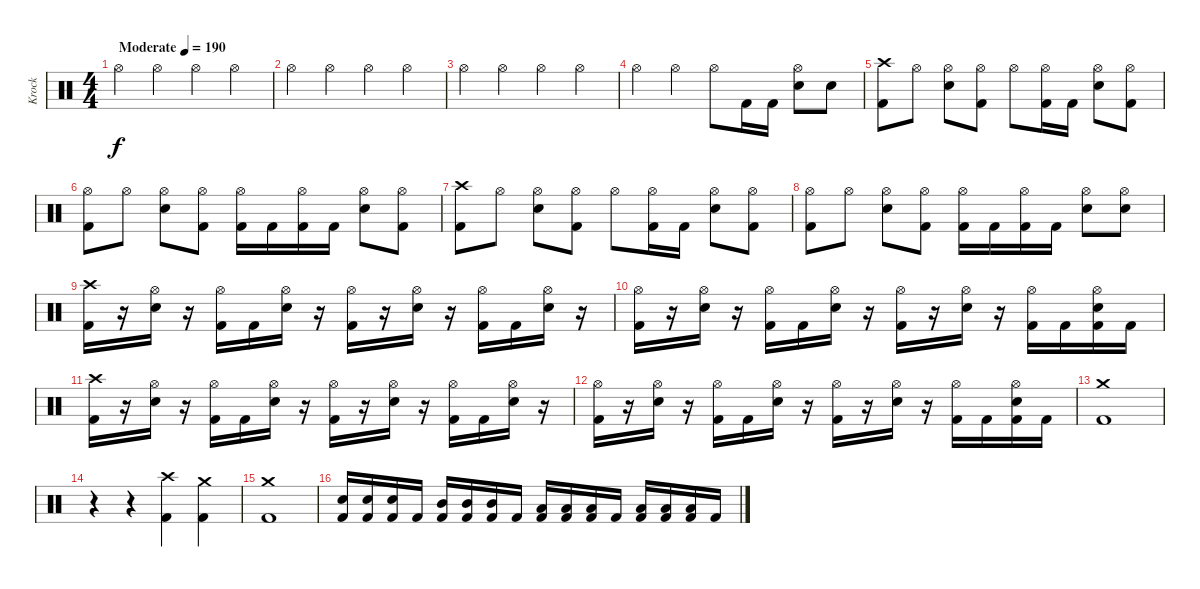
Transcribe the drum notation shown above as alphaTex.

\track ("Krock" "Krock") {instrument percussion}
\staff {score}
\articulation defaults
\ts (4 4)
\tempo (190 "Moderate")
\clef neutral
\ks c "Hi-Hat (open)".4{dy f} "Hi-Hat (open)".4 "Hi-Hat (open)".4 "Hi-Hat (open)".4
|
"Hi-Hat (open)".4 "Hi-Hat (open)".4 "Hi-Hat (open)".4 "Hi-Hat (open)".4 |
"Hi-Hat (open)".4 "Hi-Hat (open)".4 "Hi-Hat (open)".4 "Hi-Hat (open)".4 |
"Hi-Hat (open)".4 "Hi-Hat (open)".4 "Hi-Hat (open)".8 "Kick (hit) 2".16 "Kick (hit) 2".16 ("Hi-Hat (open)" "Electric Snare (hit)").8 "Electric Snare (hit)".8 |
("Crash high (hit)" "Kick (hit) 2").8 "Hi-Hat (open)".8 ("Hi-Hat (open)" "Electric Snare (hit)").8 ("Hi-Hat (open)" "Kick (hit) 2").8 "Hi-Hat (open)".8 ("Hi-Hat (open)" "Kick (hit) 2").16 "Kick (hit) 2".16 ("Hi-Hat (open)" "Electric Snare (hit)").8 ("Hi-Hat (open)" "Kick (hit) 2").8 |
("Hi-Hat (open)" "Kick (hit) 2").8 "Hi-Hat (open)".8 ("Hi-Hat (open)" "Electric Snare (hit)").8 ("Hi-Hat (open)" "Kick (hit) 2").8 ("Hi-Hat (open)" "Kick (hit) 2").16 "Kick (hit) 2".16 ("Hi-Hat (open)" "Kick (hit) 2").16 "Kick (hit) 2".16 ("Hi-Hat (open)" "Electric Snare (hit)").8 ("Hi-Hat (open)" "Kick (hit) 2").8 |
("Crash high (hit)" "Kick (hit) 2").8 "Hi-Hat (open)".8 ("Hi-Hat (open)" "Electric Snare (hit)").8 ("Hi-Hat (open)" "Kick (hit) 2").8 "Hi-Hat (open)".8 ("Hi-Hat (open)" "Kick (hit) 2").16 "Kick (hit) 2".16 ("Hi-Hat (open)" "Electric Snare (hit)").8 ("Hi-Hat (open)" "Kick (hit) 2").8 |
("Hi-Hat (open)" "Kick (hit) 2").8 "Hi-Hat (open)".8 ("Hi-Hat (open)" "Electric Snare (hit)").8 ("Hi-Hat (open)" "Kick (hit) 2").8 ("Hi-Hat (open)" "Kick (hit) 2").16 "Kick (hit) 2".16 ("Hi-Hat (open)" "Kick (hit) 2").16 "Kick (hit) 2".16 ("Hi-Hat (open)" "Electric Snare (hit)").8 ("Hi-Hat (open)" "Electric Snare (hit)").8 |
("Crash high (hit)" "Kick (hit) 2").16 r.16 ("Hi-Hat (open)" "Electric Snare (hit)").16 r.16 ("Hi-Hat (open)" "Kick (hit) 2").16 "Kick (hit) 2".16 ("Hi-Hat (open)" "Electric Snare (hit)").16 r.16 ("Hi-Hat (open)" "Kick (hit) 2").16 r.16 ("Hi-Hat (open)" "Electric Snare (hit)").16 r.16 ("Hi-Hat (open)" "Kick (hit) 2").16 "Kick (hit) 2".16 ("Hi-Hat (open)" "Electric Snare (hit)").16 r.16 |
("Hi-Hat (open)" "Kick (hit) 2").16 r.16 ("Hi-Hat (open)" "Electric Snare (hit)").16 r.16 ("Hi-Hat (open)" "Kick (hit) 2").16 "Kick (hit) 2".16 ("Hi-Hat (open)" "Electric Snare (hit)").16 r.16 ("Hi-Hat (open)" "Kick (hit) 2").16 r.16 ("Hi-Hat (open)" "Electric Snare (hit)").16 r.16 ("Hi-Hat (open)" "Kick (hit) 2").16 "Kick (hit) 2".16 ("Hi-Hat (open)" "Electric Snare (hit)" "Kick (hit) 2").16 "Kick (hit) 2".16 |
("Crash high (hit)" "Kick (hit) 2").16 r.16 ("Hi-Hat (open)" "Electric Snare (hit)").16 r.16 ("Hi-Hat (open)" "Kick (hit) 2").16 "Kick (hit) 2".16 ("Hi-Hat (open)" "Electric Snare (hit)").16 r.16 ("Hi-Hat (open)" "Kick (hit) 2").16 r.16 ("Hi-Hat (open)" "Electric Snare (hit)").16 r.16 ("Hi-Hat (open)" "Kick (hit) 2").16 "Kick (hit) 2".16 ("Hi-Hat (open)" "Electric Snare (hit)").16 r.16 |
("Hi-Hat (open)" "Kick (hit) 2").16 r.16 ("Hi-Hat (open)" "Electric Snare (hit)").16 r.16 ("Hi-Hat (open)" "Kick (hit) 2").16 "Kick (hit) 2".16 ("Hi-Hat (open)" "Electric Snare (hit)").16 r.16 ("Hi-Hat (open)" "Kick (hit) 2").16 r.16 ("Hi-Hat (open)" "Electric Snare (hit)").16 r.16 ("Hi-Hat (open)" "Kick (hit) 2").16 "Kick (hit) 2".16 ("Hi-Hat (open)" "Electric Snare (hit)" "Kick (hit) 2").16 "Kick (hit) 2".16 |
("Crash medium (hit)" "Kick (hit) 2").1 |
r.4 r.4 ("Crash high (hit)" "Kick (hit) 2").4 ("Crash medium (hit)" "Kick (hit) 2").4 |
("Crash medium (hit)" "Kick (hit) 2").1 |
("Electric Snare (hit)" "Kick (hit) 2").16 ("Electric Snare (hit)" "Kick (hit) 2").16 ("Electric Snare (hit)" "Kick (hit) 2").16 "Kick (hit) 2".16 ("Mid Tom (hit)" "Kick (hit) 2").16 ("Mid Tom (hit)" "Kick (hit) 2").16 ("Mid Tom (hit)" "Kick (hit) 2").16 "Kick (hit) 2".16 ("Low Tom (hit)" "Kick (hit) 2").16 ("Low Tom (hit)" "Kick (hit) 2").16 ("Low Tom (hit)" "Kick (hit) 2").16 "Kick (hit) 2".16 ("Low Floor Tom (hit)" "Kick (hit) 2").16 ("Low Floor Tom (hit)" "Kick (hit) 2").16 ("Low Floor Tom (hit)" "Kick (hit) 2").16 "Kick (hit) 2".16
